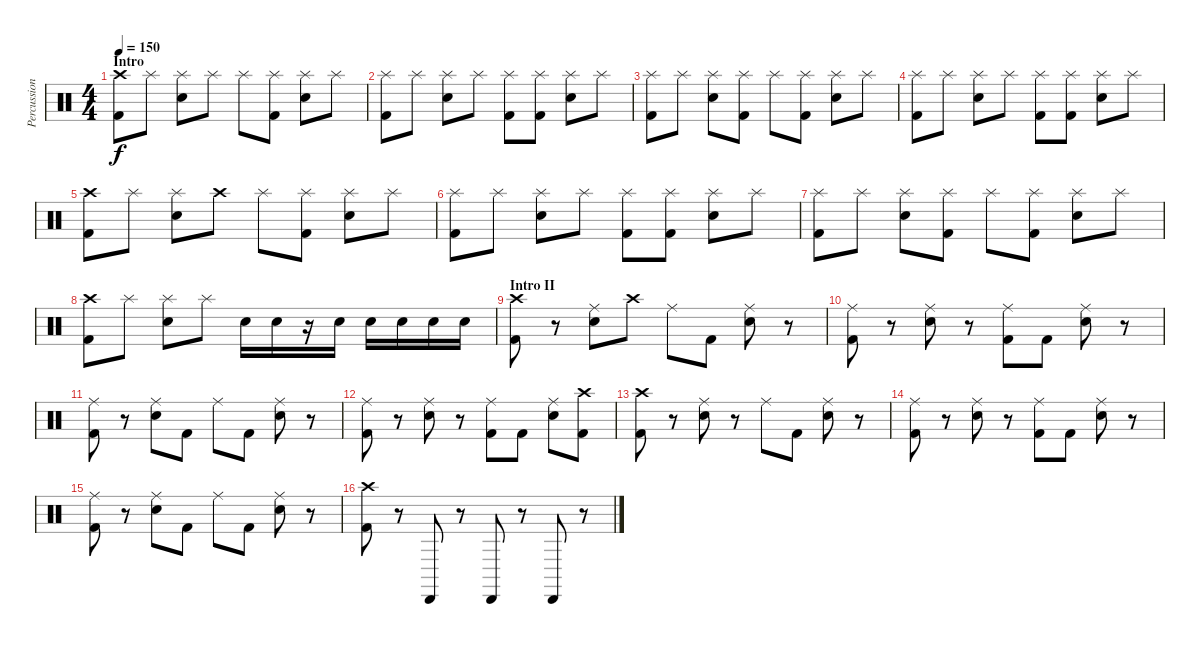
\track ("Percussion" "Percussion") {instrument percussion}
\staff {score}
\articulation defaults
\ts (4 4)
\section ("" "Intro")
\tempo 150
\clef neutral
\ks c
("Crash high (hit)" "Kick (hit) 2").8{dy f} "Splash (hit)".8 ("Splash (hit)" "Electric Snare (hit)").8 "Splash (hit)".8 "Splash (hit)".8 ("Splash (hit)" "Kick (hit) 2").8 ("Splash (hit)" "Electric Snare (hit)").8 "Splash (hit)".8 |
("Splash (hit)" "Kick (hit) 2").8 "Splash (hit)".8 ("Splash (hit)" "Electric Snare (hit)").8 "Splash (hit)".8 ("Splash (hit)" "Kick (hit) 2").8 ("Splash (hit)" "Kick (hit) 2").8 ("Splash (hit)" "Electric Snare (hit)").8 "Splash (hit)".8 |
("Splash (hit)" "Kick (hit) 2").8 "Splash (hit)".8 ("Splash (hit)" "Electric Snare (hit)").8 ("Splash (hit)" "Kick (hit) 2").8 "Splash (hit)".8 ("Splash (hit)" "Kick (hit) 2").8 ("Splash (hit)" "Electric Snare (hit)").8 "Splash (hit)".8 |
("Splash (hit)" "Kick (hit) 2").8 "Splash (hit)".8 ("Splash (hit)" "Electric Snare (hit)").8 "Splash (hit)".8 ("Splash (hit)" "Kick (hit) 2").8 ("Splash (hit)" "Kick (hit) 2").8 ("Splash (hit)" "Electric Snare (hit)").8 "Splash (hit)".8 |
("Crash high (hit)" "Kick (hit) 2").8 "Splash (hit)".8 ("Splash (hit)" "Electric Snare (hit)").8 "Crash high (hit)".8 "Splash (hit)".8 ("Splash (hit)" "Kick (hit) 2").8 ("Splash (hit)" "Electric Snare (hit)").8 "Splash (hit)".8 |
("Splash (hit)" "Kick (hit) 2").8 "Splash (hit)".8 ("Splash (hit)" "Electric Snare (hit)").8 "Splash (hit)".8 ("Splash (hit)" "Kick (hit) 2").8 ("Splash (hit)" "Kick (hit) 2").8 ("Splash (hit)" "Electric Snare (hit)").8 "Splash (hit)".8 |
("Splash (hit)" "Kick (hit) 2").8 "Splash (hit)".8 ("Splash (hit)" "Electric Snare (hit)").8 ("Splash (hit)" "Kick (hit) 2").8 "Splash (hit)".8 ("Splash (hit)" "Kick (hit) 2").8 ("Splash (hit)" "Electric Snare (hit)").8 "Splash (hit)".8 |
("Crash high (hit)" "Kick (hit) 2").8 "Splash (hit)".8 ("Splash (hit)" "Electric Snare (hit)").8 "Splash (hit)".8 "Electric Snare (hit)".16 "Electric Snare (hit)".16 r.16 "Electric Snare (hit)".16 "Electric Snare (hit)".16 "Electric Snare (hit)".16 "Electric Snare (hit)".16 "Electric Snare (hit)".16 |
\section ("" "Intro II")
("Crash high (hit)" "Kick (hit) 2").8 r.8 ("Ride (middle)" "Electric Snare (hit)").8 "Crash high (hit)".8 "Ride (middle)".8 "Kick (hit) 2".8 ("Ride (middle)" "Electric Snare (hit)").8 r.8 |
("Ride (middle)" "Kick (hit) 2").8 r.8 ("Ride (middle)" "Electric Snare (hit)").8 r.8 ("Ride (middle)" "Kick (hit) 2").8 "Kick (hit) 2".8 ("Ride (middle)" "Electric Snare (hit)").8 r.8 |
("Ride (middle)" "Kick (hit) 2").8 r.8 ("Ride (middle)" "Electric Snare (hit)").8 "Kick (hit) 2".8 "Ride (middle)".8 "Kick (hit) 2".8 ("Ride (middle)" "Electric Snare (hit)").8 r.8 |
("Ride (middle)" "Kick (hit) 2").8 r.8 ("Ride (middle)" "Electric Snare (hit)").8 r.8 ("Ride (middle)" "Kick (hit) 2").8 "Kick (hit) 2".8 ("Ride (middle)" "Electric Snare (hit)").8 ("Crash high (hit)" "Kick (hit) 2").8 |
("Crash high (hit)" "Kick (hit) 2").8 r.8 ("Ride (middle)" "Electric Snare (hit)").8 r.8 "Ride (middle)".8 "Kick (hit) 2".8 ("Ride (middle)" "Electric Snare (hit)").8 r.8 |
("Ride (middle)" "Kick (hit) 2").8 r.8 ("Ride (middle)" "Electric Snare (hit)").8 r.8 ("Ride (middle)" "Kick (hit) 2").8 "Kick (hit) 2".8 ("Ride (middle)" "Electric Snare (hit)").8 r.8 |
("Ride (middle)" "Kick (hit) 2").8 r.8 ("Ride (middle)" "Electric Snare (hit)").8 "Kick (hit) 2".8 "Ride (middle)".8 "Kick (hit) 2".8 ("Ride (middle)" "Electric Snare (hit)").8 r.8 |
("Crash high (hit)" "Kick (hit) 2").8 r.8 "Cabasa (hit)".8 r.8 "Cabasa (hit)".8 r.8 "Cabasa (hit)".8 r.8
